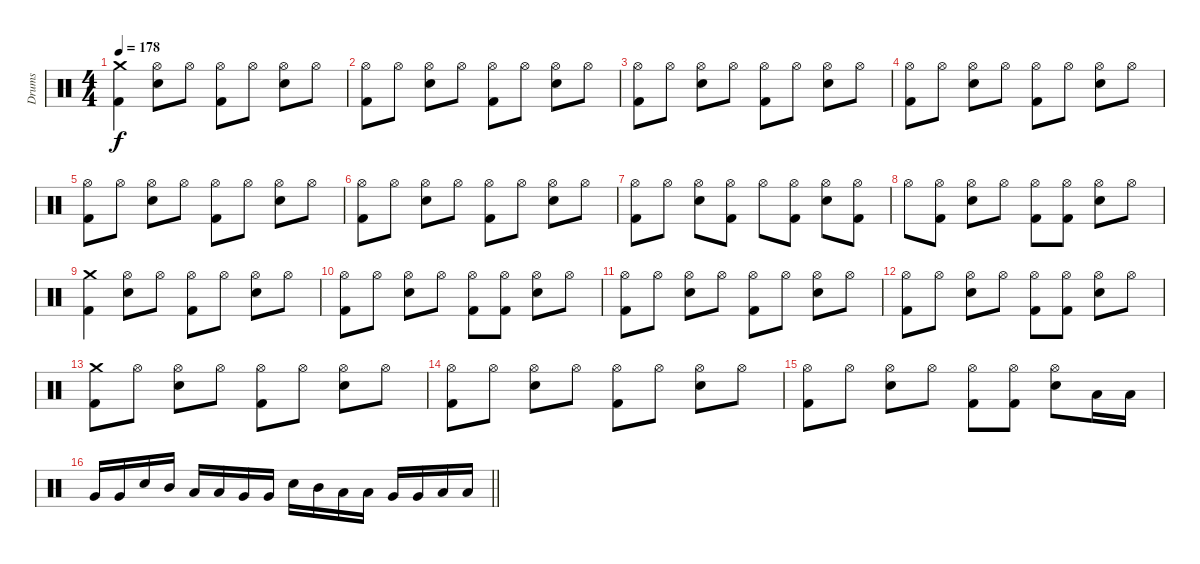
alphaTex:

\track ("Drums" "Drums") {instrument percussion}
\staff {score}
\articulation defaults
\ts (4 4)
\tempo 178
\clef neutral
\ks c
("Crash medium (hit)" "Kick (hit) 2").4{dy f} ("Hi-Hat (open)" "Electric Snare (hit)").8 "Hi-Hat (open)".8 ("Hi-Hat (open)" "Kick (hit) 2").8 "Hi-Hat (open)".8 ("Hi-Hat (open)" "Electric Snare (hit)").8 "Hi-Hat (open)".8 |
("Hi-Hat (open)" "Kick (hit) 2").8 "Hi-Hat (open)".8 ("Hi-Hat (open)" "Electric Snare (hit)").8 "Hi-Hat (open)".8 ("Hi-Hat (open)" "Kick (hit) 2").8 "Hi-Hat (open)".8 ("Hi-Hat (open)" "Electric Snare (hit)").8 "Hi-Hat (open)".8 |
("Hi-Hat (open)" "Kick (hit) 2").8 "Hi-Hat (open)".8 ("Hi-Hat (open)" "Electric Snare (hit)").8 "Hi-Hat (open)".8 ("Hi-Hat (open)" "Kick (hit) 2").8 "Hi-Hat (open)".8 ("Hi-Hat (open)" "Electric Snare (hit)").8 "Hi-Hat (open)".8 |
("Hi-Hat (open)" "Kick (hit) 2").8 "Hi-Hat (open)".8 ("Hi-Hat (open)" "Electric Snare (hit)").8 "Hi-Hat (open)".8 ("Hi-Hat (open)" "Kick (hit) 2").8 "Hi-Hat (open)".8 ("Hi-Hat (open)" "Electric Snare (hit)").8 "Hi-Hat (open)".8 |
("Hi-Hat (open)" "Kick (hit) 2").8 "Hi-Hat (open)".8 ("Hi-Hat (open)" "Electric Snare (hit)").8 "Hi-Hat (open)".8 ("Hi-Hat (open)" "Kick (hit) 2").8 "Hi-Hat (open)".8 ("Hi-Hat (open)" "Electric Snare (hit)").8 "Hi-Hat (open)".8 |
("Hi-Hat (open)" "Kick (hit) 2").8 "Hi-Hat (open)".8 ("Hi-Hat (open)" "Electric Snare (hit)").8 "Hi-Hat (open)".8 ("Hi-Hat (open)" "Kick (hit) 2").8 "Hi-Hat (open)".8 ("Hi-Hat (open)" "Electric Snare (hit)").8 "Hi-Hat (open)".8 |
("Hi-Hat (open)" "Kick (hit) 2").8 "Hi-Hat (open)".8 ("Hi-Hat (open)" "Electric Snare (hit)").8 ("Hi-Hat (open)" "Kick (hit) 2").8 "Hi-Hat (open)".8 ("Hi-Hat (open)" "Kick (hit) 2").8 ("Hi-Hat (open)" "Electric Snare (hit)").8 ("Hi-Hat (open)" "Kick (hit) 2").8 |
"Hi-Hat (open)".8 ("Hi-Hat (open)" "Kick (hit) 2").8 ("Hi-Hat (open)" "Electric Snare (hit)").8 "Hi-Hat (open)".8 ("Hi-Hat (open)" "Kick (hit) 2").8 ("Hi-Hat (open)" "Kick (hit) 2").8 ("Hi-Hat (open)" "Electric Snare (hit)").8 "Hi-Hat (open)".8 |
("Crash medium (hit)" "Kick (hit) 2").4 ("Hi-Hat (open)" "Electric Snare (hit)").8 "Hi-Hat (open)".8 ("Hi-Hat (open)" "Kick (hit) 2").8 "Hi-Hat (open)".8 ("Hi-Hat (open)" "Electric Snare (hit)").8 "Hi-Hat (open)".8 |
("Hi-Hat (open)" "Kick (hit) 2").8 "Hi-Hat (open)".8 ("Hi-Hat (open)" "Electric Snare (hit)").8 "Hi-Hat (open)".8 ("Hi-Hat (open)" "Kick (hit) 2").8 ("Hi-Hat (open)" "Kick (hit) 2").8 ("Hi-Hat (open)" "Electric Snare (hit)").8 "Hi-Hat (open)".8 |
("Hi-Hat (open)" "Kick (hit) 2").8 "Hi-Hat (open)".8 ("Hi-Hat (open)" "Electric Snare (hit)").8 "Hi-Hat (open)".8 ("Hi-Hat (open)" "Kick (hit) 2").8 "Hi-Hat (open)".8 ("Hi-Hat (open)" "Electric Snare (hit)").8 "Hi-Hat (open)".8 |
("Hi-Hat (open)" "Kick (hit) 2").8 "Hi-Hat (open)".8 ("Hi-Hat (open)" "Electric Snare (hit)").8 "Hi-Hat (open)".8 ("Hi-Hat (open)" "Kick (hit) 2").8 ("Hi-Hat (open)" "Kick (hit) 2").8 ("Hi-Hat (open)" "Electric Snare (hit)").8 "Hi-Hat (open)".8 |
("Crash medium (hit)" "Kick (hit) 2").8 "Hi-Hat (open)".8 ("Hi-Hat (open)" "Electric Snare (hit)").8 "Hi-Hat (open)".8 ("Hi-Hat (open)" "Kick (hit) 2").8 "Hi-Hat (open)".8 ("Hi-Hat (open)" "Electric Snare (hit)").8 "Hi-Hat (open)".8 |
("Hi-Hat (open)" "Kick (hit) 2").8 "Hi-Hat (open)".8 ("Hi-Hat (open)" "Electric Snare (hit)").8 "Hi-Hat (open)".8 ("Hi-Hat (open)" "Kick (hit) 2").8 "Hi-Hat (open)".8 ("Hi-Hat (open)" "Electric Snare (hit)").8 "Hi-Hat (open)".8 |
("Hi-Hat (open)" "Kick (hit) 2").8 "Hi-Hat (open)".8 ("Hi-Hat (open)" "Electric Snare (hit)").8 "Hi-Hat (open)".8 ("Hi-Hat (open)" "Kick (hit) 2").8 ("Hi-Hat (open)" "Kick (hit) 2").8 ("Hi-Hat (open)" "Electric Snare (hit)").8 "Low Tom (hit)".16 "Low Tom (hit)".16 |
\barLineRight lightlight "Very Low Tom (hit)".16 "Very Low Tom (hit)".16 "Electric Snare (hit)".16 "Mid Tom (hit)".16 "Low Tom (hit)".16 "Low Tom (hit)".16 "Very Low Tom (hit)".16 "Very Low Tom (hit)".16 "Electric Snare (hit)".16 "Mid Tom (hit)".16 "Low Tom (hit)".16 "Low Tom (hit)".16 "Very Low Tom (hit)".16 "Very Low Tom (hit)".16 "Low Floor Tom (hit)".16 "Low Floor Tom (hit)".16
